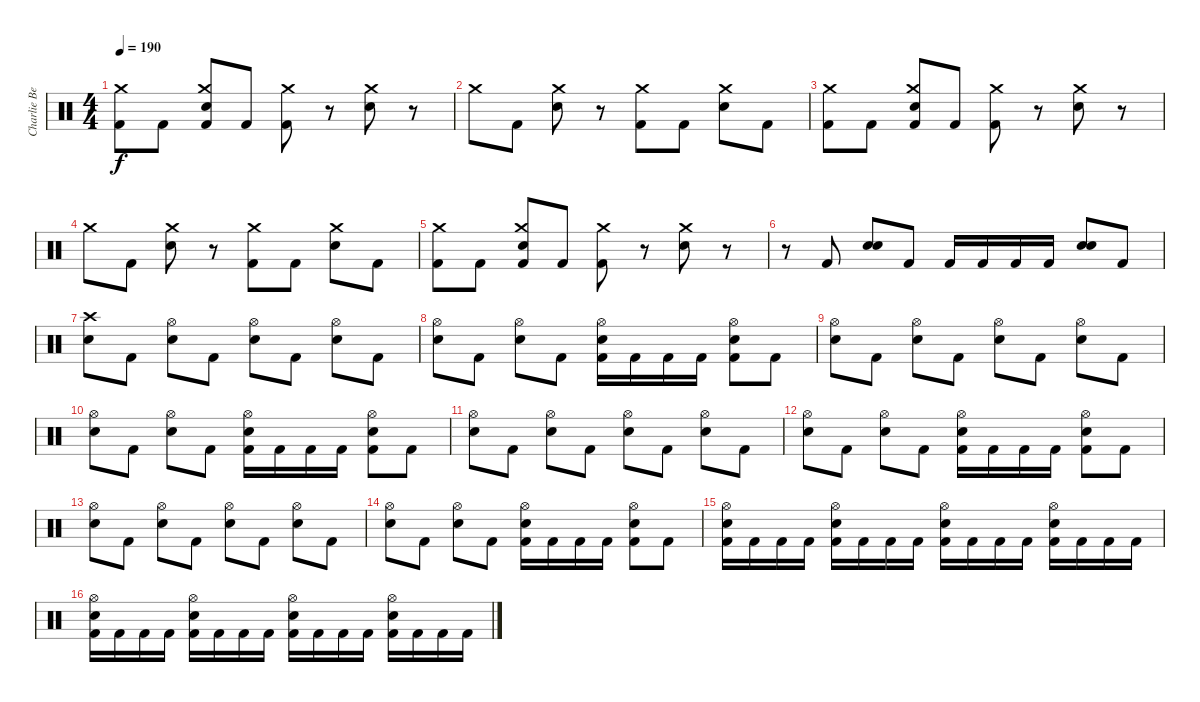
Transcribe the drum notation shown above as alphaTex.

\track ("Charlie Benante" "Charlie Be") {instrument percussion}
\staff {score}
\articulation defaults
\ts (4 4)
\tempo 190
\clef neutral
\ks c
("Kick (hit) 2" "Crash medium (hit)").8{dy f} "Kick (hit) 2".8 ("Kick (hit) 2" "Crash medium (hit)" "Snare (hit) 2").8 "Kick (hit) 2".8 ("Kick (hit) 2" "Crash medium (hit)").8 r.8 ("Snare (hit) 2" "Crash medium (hit)").8 r.8 |
"Crash medium (hit)".8 "Kick (hit) 2".8 ("Snare (hit) 2" "Crash medium (hit)").8 r.8 ("Kick (hit) 2" "Crash medium (hit)").8 "Kick (hit) 2".8 ("Snare (hit) 2" "Crash medium (hit)").8 "Kick (hit) 2".8 |
("Kick (hit) 2" "Crash medium (hit)").8 "Kick (hit) 2".8 ("Kick (hit) 2" "Crash medium (hit)" "Snare (hit) 2").8 "Kick (hit) 2".8 ("Kick (hit) 2" "Crash medium (hit)").8 r.8 ("Snare (hit) 2" "Crash medium (hit)").8 r.8 |
"Crash medium (hit)".8 "Kick (hit) 2".8 ("Snare (hit) 2" "Crash medium (hit)").8 r.8 ("Kick (hit) 2" "Crash medium (hit)").8 "Kick (hit) 2".8 ("Snare (hit) 2" "Crash medium (hit)").8 "Kick (hit) 2".8 |
("Kick (hit) 2" "Crash medium (hit)").8 "Kick (hit) 2".8 ("Kick (hit) 2" "Crash medium (hit)" "Snare (hit) 2").8 "Kick (hit) 2".8 ("Kick (hit) 2" "Crash medium (hit)").8 r.8 ("Snare (hit) 2" "Crash medium (hit)").8 r.8 |
r.8 "Kick (hit) 2".8 ("Snare (hit) 2" "Snare (hit) 2").8{bd 480} "Kick (hit) 2".8 "Kick (hit) 2".16 "Kick (hit) 2".16 "Kick (hit) 2".16 "Kick (hit) 2".16 ("Snare (hit) 2" "Snare (hit) 2").8{bd 480} "Kick (hit) 2".8 |
("Snare (hit) 2" "Crash high (hit)").8 "Kick (hit) 2".8 ("Snare (hit) 2" "Hi-Hat (open)").8 "Kick (hit) 2".8 ("Snare (hit) 2" "Hi-Hat (open)").8 "Kick (hit) 2".8 ("Snare (hit) 2" "Hi-Hat (open)").8 "Kick (hit) 2".8 |
("Snare (hit) 2" "Hi-Hat (open)").8 "Kick (hit) 2".8 ("Snare (hit) 2" "Hi-Hat (open)").8 "Kick (hit) 2".8 ("Kick (hit) 2" "Snare (hit) 2" "Hi-Hat (open)").16 "Kick (hit) 2".16 "Kick (hit) 2".16 "Kick (hit) 2".16 ("Kick (hit) 2" "Snare (hit) 2" "Hi-Hat (open)").8 "Kick (hit) 2".8 |
("Snare (hit) 2" "Hi-Hat (open)").8 "Kick (hit) 2".8 ("Snare (hit) 2" "Hi-Hat (open)").8 "Kick (hit) 2".8 ("Snare (hit) 2" "Hi-Hat (open)").8 "Kick (hit) 2".8 ("Snare (hit) 2" "Hi-Hat (open)").8 "Kick (hit) 2".8 |
("Snare (hit) 2" "Hi-Hat (open)").8 "Kick (hit) 2".8 ("Snare (hit) 2" "Hi-Hat (open)").8 "Kick (hit) 2".8 ("Kick (hit) 2" "Snare (hit) 2" "Hi-Hat (open)").16 "Kick (hit) 2".16 "Kick (hit) 2".16 "Kick (hit) 2".16 ("Kick (hit) 2" "Snare (hit) 2" "Hi-Hat (open)").8 "Kick (hit) 2".8 |
("Snare (hit) 2" "Hi-Hat (open)").8 "Kick (hit) 2".8 ("Snare (hit) 2" "Hi-Hat (open)").8 "Kick (hit) 2".8 ("Snare (hit) 2" "Hi-Hat (open)").8 "Kick (hit) 2".8 ("Snare (hit) 2" "Hi-Hat (open)").8 "Kick (hit) 2".8 |
("Snare (hit) 2" "Hi-Hat (open)").8 "Kick (hit) 2".8 ("Snare (hit) 2" "Hi-Hat (open)").8 "Kick (hit) 2".8 ("Kick (hit) 2" "Snare (hit) 2" "Hi-Hat (open)").16 "Kick (hit) 2".16 "Kick (hit) 2".16 "Kick (hit) 2".16 ("Kick (hit) 2" "Snare (hit) 2" "Hi-Hat (open)").8 "Kick (hit) 2".8 |
("Snare (hit) 2" "Hi-Hat (open)").8 "Kick (hit) 2".8 ("Snare (hit) 2" "Hi-Hat (open)").8 "Kick (hit) 2".8 ("Snare (hit) 2" "Hi-Hat (open)").8 "Kick (hit) 2".8 ("Snare (hit) 2" "Hi-Hat (open)").8 "Kick (hit) 2".8 |
("Snare (hit) 2" "Hi-Hat (open)").8 "Kick (hit) 2".8 ("Snare (hit) 2" "Hi-Hat (open)").8 "Kick (hit) 2".8 ("Kick (hit) 2" "Snare (hit) 2" "Hi-Hat (open)").16 "Kick (hit) 2".16 "Kick (hit) 2".16 "Kick (hit) 2".16 ("Kick (hit) 2" "Snare (hit) 2" "Hi-Hat (open)").8 "Kick (hit) 2".8 |
("Kick (hit) 2" "Snare (hit) 2" "Hi-Hat (open)").16 "Kick (hit) 2".16 "Kick (hit) 2".16 "Kick (hit) 2".16 ("Kick (hit) 2" "Snare (hit) 2" "Hi-Hat (open)").16 "Kick (hit) 2".16 "Kick (hit) 2".16 "Kick (hit) 2".16 ("Kick (hit) 2" "Snare (hit) 2" "Hi-Hat (open)").16 "Kick (hit) 2".16 "Kick (hit) 2".16 "Kick (hit) 2".16 ("Kick (hit) 2" "Snare (hit) 2" "Hi-Hat (open)").16 "Kick (hit) 2".16 "Kick (hit) 2".16 "Kick (hit) 2".16 |
("Kick (hit) 2" "Snare (hit) 2" "Hi-Hat (open)").16 "Kick (hit) 2".16 "Kick (hit) 2".16 "Kick (hit) 2".16 ("Kick (hit) 2" "Snare (hit) 2" "Hi-Hat (open)").16 "Kick (hit) 2".16 "Kick (hit) 2".16 "Kick (hit) 2".16 ("Kick (hit) 2" "Snare (hit) 2" "Hi-Hat (open)").16 "Kick (hit) 2".16 "Kick (hit) 2".16 "Kick (hit) 2".16 ("Kick (hit) 2" "Snare (hit) 2" "Hi-Hat (open)").16 "Kick (hit) 2".16 "Kick (hit) 2".16 "Kick (hit) 2".16
